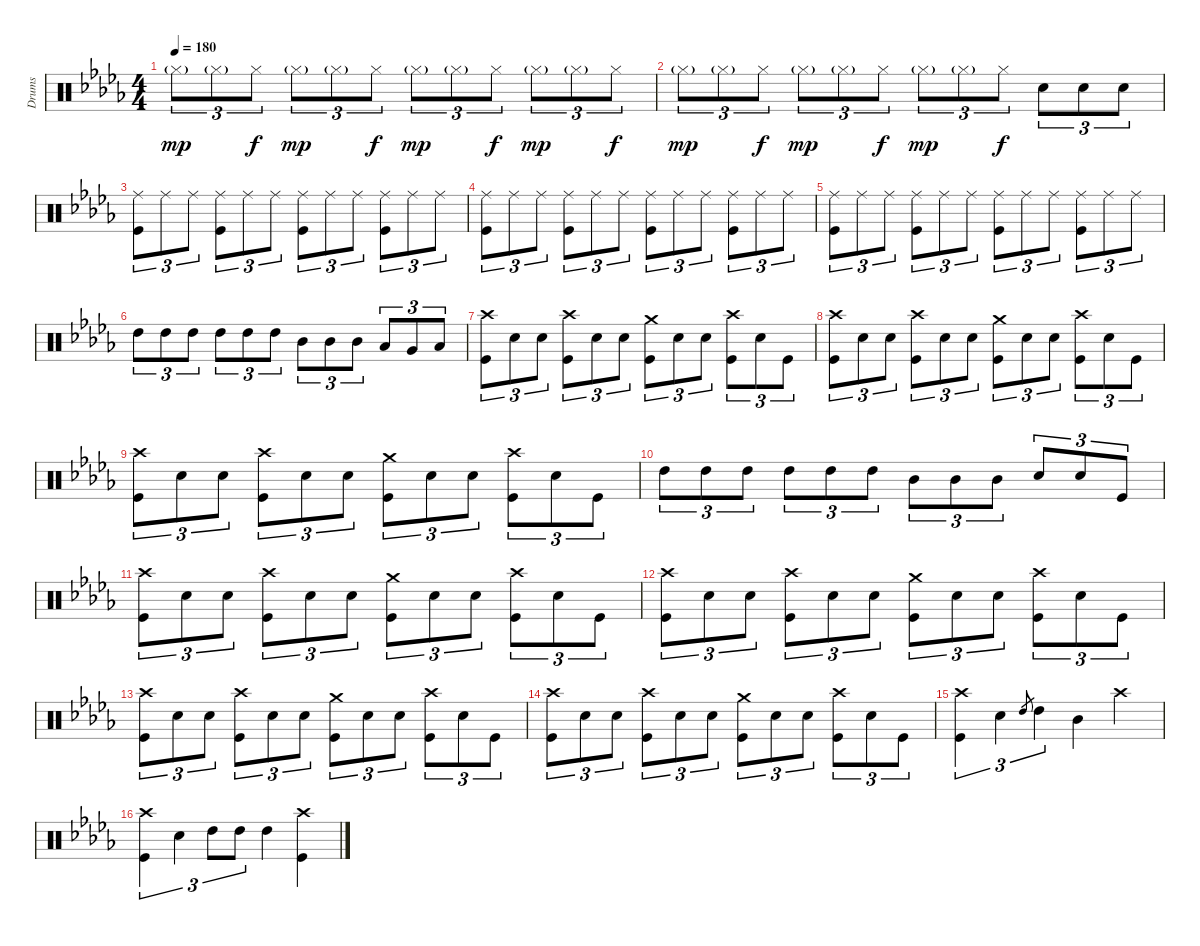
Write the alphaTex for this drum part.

\track ("Drums" "Drums") {instrument percussion}
\staff {score}
\articulation defaults
\ts (4 4)
\tempo 180
\clef neutral
\ks db "Hi-Hat (closed)"{g}.8{tu (3 2) dy mp} "Hi-Hat (closed)"{g}.8{tu (3 2)} "Hi-Hat (closed)".8{tu (3 2) dy f} "Hi-Hat (closed)"{g}.8{tu (3 2) dy mp} "Hi-Hat (closed)"{g}.8{tu (3 2)} "Hi-Hat (closed)".8{tu (3 2) dy f} "Hi-Hat (closed)"{g}.8{tu (3 2) dy mp} "Hi-Hat (closed)"{g}.8{tu (3 2)} "Hi-Hat (closed)".8{tu (3 2) dy f} "Hi-Hat (closed)"{g}.8{tu (3 2) dy mp} "Hi-Hat (closed)"{g}.8{tu (3 2)} "Hi-Hat (closed)".8{tu (3 2) dy f}
|
"Hi-Hat (closed)"{g}.8{tu (3 2) dy mp} "Hi-Hat (closed)"{g}.8{tu (3 2)} "Hi-Hat (closed)".8{tu (3 2) dy f} "Hi-Hat (closed)"{g}.8{tu (3 2) dy mp} "Hi-Hat (closed)"{g}.8{tu (3 2)} "Hi-Hat (closed)".8{tu (3 2) dy f} "Hi-Hat (closed)"{g}.8{tu (3 2) dy mp} "Hi-Hat (closed)"{g}.8{tu (3 2)} "Hi-Hat (closed)".8{tu (3 2) dy f} "Electric Snare (hit)".8{tu (3 2)} "Electric Snare (hit)".8{tu (3 2)} "Electric Snare (hit)".8{tu (3 2)} |
("Ride (middle)" "Kick (hit)").8{tu (3 2)} "Ride (middle)".8{tu (3 2)} "Ride (middle)".8{tu (3 2)} ("Ride (middle)" "Kick (hit)").8{tu (3 2)} "Ride (middle)".8{tu (3 2)} "Ride (middle)".8{tu (3 2)} ("Ride (middle)" "Kick (hit)").8{tu (3 2)} "Ride (middle)".8{tu (3 2)} "Ride (middle)".8{tu (3 2)} ("Ride (middle)" "Kick (hit)").8{tu (3 2)} "Ride (middle)".8{tu (3 2)} "Ride (middle)".8{tu (3 2)} |
("Ride (middle)" "Kick (hit)").8{tu (3 2)} "Ride (middle)".8{tu (3 2)} "Ride (middle)".8{tu (3 2)} ("Ride (middle)" "Kick (hit)").8{tu (3 2)} "Ride (middle)".8{tu (3 2)} "Ride (middle)".8{tu (3 2)} ("Ride (middle)" "Kick (hit)").8{tu (3 2)} "Ride (middle)".8{tu (3 2)} "Ride (middle)".8{tu (3 2)} ("Ride (middle)" "Kick (hit)").8{tu (3 2)} "Ride (middle)".8{tu (3 2)} "Ride (middle)".8{tu (3 2)} |
("Ride (middle)" "Kick (hit)").8{tu (3 2)} "Ride (middle)".8{tu (3 2)} "Ride (middle)".8{tu (3 2)} ("Ride (middle)" "Kick (hit)").8{tu (3 2)} "Ride (middle)".8{tu (3 2)} "Ride (middle)".8{tu (3 2)} ("Ride (middle)" "Kick (hit)").8{tu (3 2)} "Ride (middle)".8{tu (3 2)} "Ride (middle)".8{tu (3 2)} ("Ride (middle)" "Kick (hit)").8{tu (3 2)} "Ride (middle)".8{tu (3 2)} "Ride (middle)".8{tu (3 2)} |
"High Tom (hit)".8{tu (3 2)} "High Tom (hit)".8{tu (3 2)} "High Tom (hit)".8{tu (3 2)} "High Tom (hit)".8{tu (3 2)} "High Tom (hit)".8{tu (3 2)} "High Tom (hit)".8{tu (3 2)} "Mid Tom (hit)".8{tu (3 2)} "Mid Tom (hit)".8{tu (3 2)} "Mid Tom (hit)".8{tu (3 2)} "Low Tom (hit)".8{tu (3 2)} "Very Low Tom (hit)".8{tu (3 2)} "Low Floor Tom (hit)".8{tu (3 2)} |
("Crash high (hit)" "Kick (hit)").8{tu (3 2)} "Electric Snare (hit)".8{tu (3 2)} "Electric Snare (hit)".8{tu (3 2)} ("Crash high (hit)" "Kick (hit)").8{tu (3 2)} "Electric Snare (hit)".8{tu (3 2)} "Electric Snare (hit)".8{tu (3 2)} ("Crash medium (hit)" "Kick (hit)").8{tu (3 2)} "Electric Snare (hit)".8{tu (3 2)} "Electric Snare (hit)".8{tu (3 2)} ("Crash high (hit)" "Kick (hit)").8{tu (3 2)} "Electric Snare (hit)".8{tu (3 2)} "Kick (hit)".8{tu (3 2)} |
("Crash high (hit)" "Kick (hit)").8{tu (3 2)} "Electric Snare (hit)".8{tu (3 2)} "Electric Snare (hit)".8{tu (3 2)} ("Crash high (hit)" "Kick (hit)").8{tu (3 2)} "Electric Snare (hit)".8{tu (3 2)} "Electric Snare (hit)".8{tu (3 2)} ("Crash medium (hit)" "Kick (hit)").8{tu (3 2)} "Electric Snare (hit)".8{tu (3 2)} "Electric Snare (hit)".8{tu (3 2)} ("Crash high (hit)" "Kick (hit)").8{tu (3 2)} "Electric Snare (hit)".8{tu (3 2)} "Kick (hit)".8{tu (3 2)} |
("Crash high (hit)" "Kick (hit)").8{tu (3 2)} "Electric Snare (hit)".8{tu (3 2)} "Electric Snare (hit)".8{tu (3 2)} ("Crash high (hit)" "Kick (hit)").8{tu (3 2)} "Electric Snare (hit)".8{tu (3 2)} "Electric Snare (hit)".8{tu (3 2)} ("Crash medium (hit)" "Kick (hit)").8{tu (3 2)} "Electric Snare (hit)".8{tu (3 2)} "Electric Snare (hit)".8{tu (3 2)} ("Crash high (hit)" "Kick (hit)").8{tu (3 2)} "Electric Snare (hit)".8{tu (3 2)} "Kick (hit)".8{tu (3 2)} |
"High Tom (hit)".8{tu (3 2)} "High Tom (hit)".8{tu (3 2)} "High Tom (hit)".8{tu (3 2)} "High Tom (hit)".8{tu (3 2)} "High Tom (hit)".8{tu (3 2)} "High Tom (hit)".8{tu (3 2)} "Mid Tom (hit)".8{tu (3 2)} "Mid Tom (hit)".8{tu (3 2)} "Mid Tom (hit)".8{tu (3 2)} "Electric Snare (hit)".8{tu (3 2)} "Electric Snare (hit)".8{tu (3 2)} "Kick (hit)".8{tu (3 2)} |
("Crash high (hit)" "Kick (hit)").8{tu (3 2)} "Electric Snare (hit)".8{tu (3 2)} "Electric Snare (hit)".8{tu (3 2)} ("Crash high (hit)" "Kick (hit)").8{tu (3 2)} "Electric Snare (hit)".8{tu (3 2)} "Electric Snare (hit)".8{tu (3 2)} ("Crash medium (hit)" "Kick (hit)").8{tu (3 2)} "Electric Snare (hit)".8{tu (3 2)} "Electric Snare (hit)".8{tu (3 2)} ("Crash high (hit)" "Kick (hit)").8{tu (3 2)} "Electric Snare (hit)".8{tu (3 2)} "Kick (hit)".8{tu (3 2)} |
("Crash high (hit)" "Kick (hit)").8{tu (3 2)} "Electric Snare (hit)".8{tu (3 2)} "Electric Snare (hit)".8{tu (3 2)} ("Crash high (hit)" "Kick (hit)").8{tu (3 2)} "Electric Snare (hit)".8{tu (3 2)} "Electric Snare (hit)".8{tu (3 2)} ("Crash medium (hit)" "Kick (hit)").8{tu (3 2)} "Electric Snare (hit)".8{tu (3 2)} "Electric Snare (hit)".8{tu (3 2)} ("Crash high (hit)" "Kick (hit)").8{tu (3 2)} "Electric Snare (hit)".8{tu (3 2)} "Kick (hit)".8{tu (3 2)} |
("Crash high (hit)" "Kick (hit)").8{tu (3 2)} "Electric Snare (hit)".8{tu (3 2)} "Electric Snare (hit)".8{tu (3 2)} ("Crash high (hit)" "Kick (hit)").8{tu (3 2)} "Electric Snare (hit)".8{tu (3 2)} "Electric Snare (hit)".8{tu (3 2)} ("Crash medium (hit)" "Kick (hit)").8{tu (3 2)} "Electric Snare (hit)".8{tu (3 2)} "Electric Snare (hit)".8{tu (3 2)} ("Crash high (hit)" "Kick (hit)").8{tu (3 2)} "Electric Snare (hit)".8{tu (3 2)} "Kick (hit)".8{tu (3 2)} |
("Crash high (hit)" "Kick (hit)").8{tu (3 2)} "Electric Snare (hit)".8{tu (3 2)} "Electric Snare (hit)".8{tu (3 2)} ("Crash high (hit)" "Kick (hit)").8{tu (3 2)} "Electric Snare (hit)".8{tu (3 2)} "Electric Snare (hit)".8{tu (3 2)} ("Crash medium (hit)" "Kick (hit)").8{tu (3 2)} "Electric Snare (hit)".8{tu (3 2)} "Electric Snare (hit)".8{tu (3 2)} ("Crash high (hit)" "Kick (hit)").8{tu (3 2)} "Electric Snare (hit)".8{tu (3 2)} "Kick (hit)".8{tu (3 2)} |
("Crash high (hit)" "Kick (hit)").4{tu (3 2)} "Electric Snare (hit)".4{tu (3 2)} "High Tom (hit)".8{gr} "High Tom (hit)".4{tu (3 2)} "Mid Tom (hit)".4 "Crash high (hit)".4 |
("Crash high (hit)" "Kick (hit)").4{tu (3 2)} "Electric Snare (hit)".4{tu (3 2)} "High Tom (hit)".8{tu (3 2)} "High Tom (hit)".8{tu (3 2)} "High Tom (hit)".4 ("Crash high (hit)" "Kick (hit)").4
